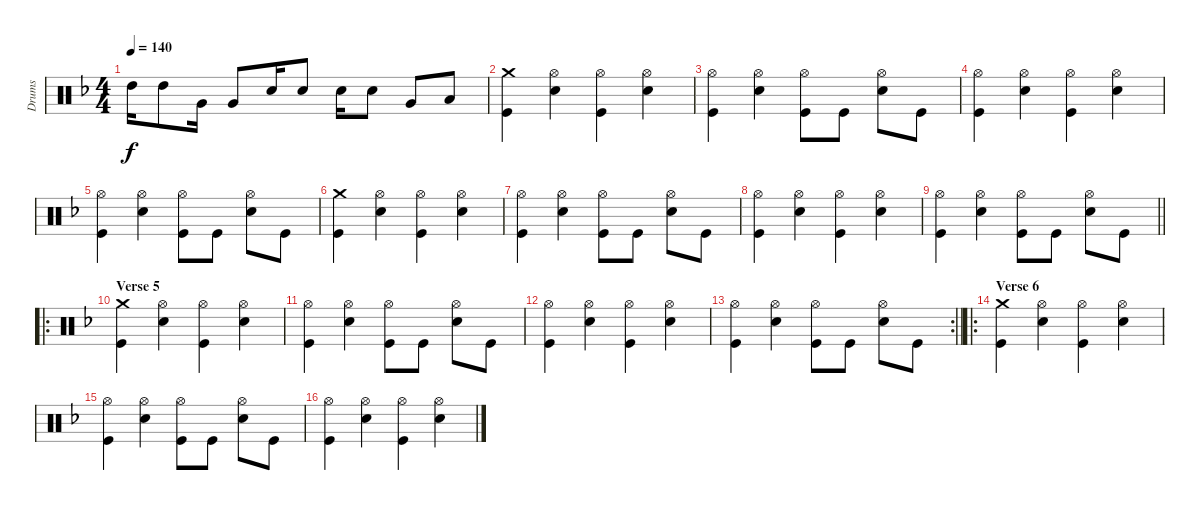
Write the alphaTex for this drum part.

\track ("Drums" "Drums") {instrument percussion}
\staff {score}
\articulation defaults
\ts (4 4)
\tempo 140
\clef neutral
\ks f "High Tom (hit)".16{dy f} "High Tom (hit)".8 "Very Low Tom (hit)".16 "Very Low Tom (hit)".8 "Snare (hit) 2".16 "Snare (hit) 2".8 "Snare (hit) 2".16 "Snare (hit) 2".8 "Very Low Tom (hit)".8 "Low Floor Tom (hit)".8
|
("Crash medium (hit)" "Kick (hit)").4 ("Hi-Hat (open)" "Snare (hit) 2").4 ("Hi-Hat (open)" "Kick (hit)").4 ("Hi-Hat (open)" "Snare (hit) 2").4 |
("Hi-Hat (open)" "Kick (hit)").4 ("Hi-Hat (open)" "Snare (hit) 2").4 ("Hi-Hat (open)" "Kick (hit)").8 "Kick (hit)".8 ("Hi-Hat (open)" "Snare (hit) 2").8 "Kick (hit)".8 |
("Hi-Hat (open)" "Kick (hit)").4 ("Hi-Hat (open)" "Snare (hit) 2").4 ("Hi-Hat (open)" "Kick (hit)").4 ("Hi-Hat (open)" "Snare (hit) 2").4 |
("Hi-Hat (open)" "Kick (hit)").4 ("Hi-Hat (open)" "Snare (hit) 2").4 ("Hi-Hat (open)" "Kick (hit)").8 "Kick (hit)".8 ("Hi-Hat (open)" "Snare (hit) 2").8 "Kick (hit)".8 |
("Crash medium (hit)" "Kick (hit)").4 ("Hi-Hat (open)" "Snare (hit) 2").4 ("Hi-Hat (open)" "Kick (hit)").4 ("Hi-Hat (open)" "Snare (hit) 2").4 |
("Hi-Hat (open)" "Kick (hit)").4 ("Hi-Hat (open)" "Snare (hit) 2").4 ("Hi-Hat (open)" "Kick (hit)").8 "Kick (hit)".8 ("Hi-Hat (open)" "Snare (hit) 2").8 "Kick (hit)".8 |
("Hi-Hat (open)" "Kick (hit)").4 ("Hi-Hat (open)" "Snare (hit) 2").4 ("Hi-Hat (open)" "Kick (hit)").4 ("Hi-Hat (open)" "Snare (hit) 2").4 |
\barLineRight lightlight
("Hi-Hat (open)" "Kick (hit)").4 ("Hi-Hat (open)" "Snare (hit) 2").4 ("Hi-Hat (open)" "Kick (hit)").8 "Kick (hit)".8 ("Hi-Hat (open)" "Snare (hit) 2").8 "Kick (hit)".8 |
\ro
\section ("" "Verse 5")
("Crash medium (hit)" "Kick (hit)").4 ("Hi-Hat (open)" "Snare (hit) 2").4 ("Hi-Hat (open)" "Kick (hit)").4 ("Hi-Hat (open)" "Snare (hit) 2").4 |
("Hi-Hat (open)" "Kick (hit)").4 ("Hi-Hat (open)" "Snare (hit) 2").4 ("Hi-Hat (open)" "Kick (hit)").8 "Kick (hit)".8 ("Hi-Hat (open)" "Snare (hit) 2").8 "Kick (hit)".8 |
("Hi-Hat (open)" "Kick (hit)").4 ("Hi-Hat (open)" "Snare (hit) 2").4 ("Hi-Hat (open)" "Kick (hit)").4 ("Hi-Hat (open)" "Snare (hit) 2").4 |
\rc 2
\barLineRight lightlight
("Hi-Hat (open)" "Kick (hit)").4 ("Hi-Hat (open)" "Snare (hit) 2").4 ("Hi-Hat (open)" "Kick (hit)").8 "Kick (hit)".8 ("Hi-Hat (open)" "Snare (hit) 2").8 "Kick (hit)".8 |
\ro
\section ("" "Verse 6")
("Crash medium (hit)" "Kick (hit)").4 ("Hi-Hat (open)" "Snare (hit) 2").4 ("Hi-Hat (open)" "Kick (hit)").4 ("Hi-Hat (open)" "Snare (hit) 2").4 |
("Hi-Hat (open)" "Kick (hit)").4 ("Hi-Hat (open)" "Snare (hit) 2").4 ("Hi-Hat (open)" "Kick (hit)").8 "Kick (hit)".8 ("Hi-Hat (open)" "Snare (hit) 2").8 "Kick (hit)".8 |
("Hi-Hat (open)" "Kick (hit)").4 ("Hi-Hat (open)" "Snare (hit) 2").4 ("Hi-Hat (open)" "Kick (hit)").4 ("Hi-Hat (open)" "Snare (hit) 2").4
